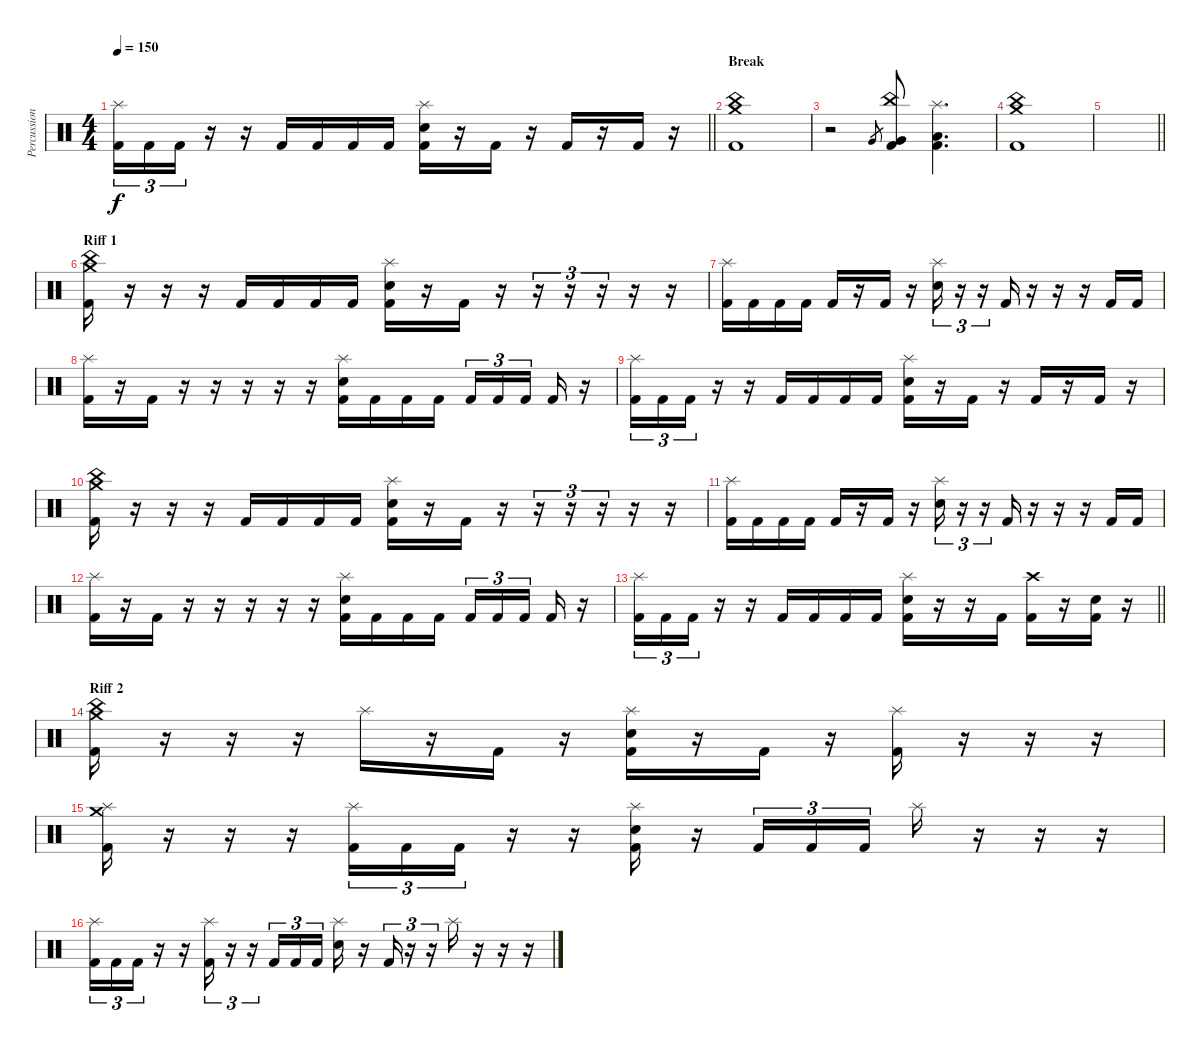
\track ("Percussion" "Percussion") {instrument percussion}
\staff {score}
\articulation defaults
\ts (4 4)
\tempo 150
\clef neutral
\barLineRight lightlight
\ks c
("Splash (hit)" "Kick (hit) 2").16{tu (3 2) dy f} "Kick (hit) 2".16{tu (3 2)} "Kick (hit) 2".16{tu (3 2)} r.16 r.16 "Kick (hit) 2".16 "Kick (hit) 2".16 "Kick (hit) 2".16 "Kick (hit) 2".16 ("Splash (hit)" "Electric Snare (hit)" "Kick (hit) 2").16 r.16 "Kick (hit) 2".16 r.16 "Kick (hit) 2".16 r.16 "Kick (hit) 2".16 r.16 |
\section ("" "Break")
("China (hit)" "Crash medium (hit)" "Kick (hit) 2").1 |
r.2 "Very Low Tom (hit)".8{gr} ("China (hit)" "Very Low Tom (hit)" "Kick (hit) 2").8 ("Splash (hit)" "Low Floor Tom (hit)" "Kick (hit) 2").4{d} |
("China (hit)" "Crash medium (hit)" "Kick (hit) 2").1 |
\barLineRight lightlight
|
\section ("" "Riff 1")
("China (hit)" "Crash medium (hit)" "Kick (hit) 2").16 r.16 r.16 r.16 "Kick (hit) 2".16 "Kick (hit) 2".16 "Kick (hit) 2".16 "Kick (hit) 2".16 ("Splash (hit)" "Electric Snare (hit)" "Kick (hit) 2").16 r.16 "Kick (hit) 2".16 r.16 r.16{tu (3 2)} r.16{tu (3 2)} r.16{tu (3 2)} r.16 r.16 |
("Splash (hit)" "Kick (hit) 2").16 "Kick (hit) 2".16 "Kick (hit) 2".16 "Kick (hit) 2".16 "Kick (hit) 2".16 r.16 "Kick (hit) 2".16 r.16 ("Splash (hit)" "Electric Snare (hit)").16{tu (3 2)} r.16{tu (3 2)} r.16{tu (3 2)} "Kick (hit) 2".16 r.16 r.16 r.16 "Kick (hit) 2".16 "Kick (hit) 2".16 |
("Splash (hit)" "Kick (hit) 2").16 r.16 "Kick (hit) 2".16 r.16 r.16 r.16 r.16 r.16 ("Splash (hit)" "Electric Snare (hit)" "Kick (hit) 2").16 "Kick (hit) 2".16 "Kick (hit) 2".16 "Kick (hit) 2".16 "Kick (hit) 2".16{tu (3 2)} "Kick (hit) 2".16{tu (3 2)} "Kick (hit) 2".16{tu (3 2) beam splitsecondary} "Kick (hit) 2".16 r.16 |
("Splash (hit)" "Kick (hit) 2").16{tu (3 2)} "Kick (hit) 2".16{tu (3 2)} "Kick (hit) 2".16{tu (3 2)} r.16 r.16 "Kick (hit) 2".16 "Kick (hit) 2".16 "Kick (hit) 2".16 "Kick (hit) 2".16 ("Splash (hit)" "Electric Snare (hit)" "Kick (hit) 2").16 r.16 "Kick (hit) 2".16 r.16 "Kick (hit) 2".16 r.16 "Kick (hit) 2".16 r.16 |
("China (hit)" "Crash medium (hit)" "Kick (hit) 2").16 r.16 r.16 r.16 "Kick (hit) 2".16 "Kick (hit) 2".16 "Kick (hit) 2".16 "Kick (hit) 2".16 ("Splash (hit)" "Electric Snare (hit)" "Kick (hit) 2").16 r.16 "Kick (hit) 2".16 r.16 r.16{tu (3 2)} r.16{tu (3 2)} r.16{tu (3 2)} r.16 r.16 |
("Splash (hit)" "Kick (hit) 2").16 "Kick (hit) 2".16 "Kick (hit) 2".16 "Kick (hit) 2".16 "Kick (hit) 2".16 r.16 "Kick (hit) 2".16 r.16 ("Splash (hit)" "Electric Snare (hit)").16{tu (3 2)} r.16{tu (3 2)} r.16{tu (3 2)} "Kick (hit) 2".16 r.16 r.16 r.16 "Kick (hit) 2".16 "Kick (hit) 2".16 |
("Splash (hit)" "Kick (hit) 2").16 r.16 "Kick (hit) 2".16 r.16 r.16 r.16 r.16 r.16 ("Splash (hit)" "Electric Snare (hit)" "Kick (hit) 2").16 "Kick (hit) 2".16 "Kick (hit) 2".16 "Kick (hit) 2".16 "Kick (hit) 2".16{tu (3 2)} "Kick (hit) 2".16{tu (3 2)} "Kick (hit) 2".16{tu (3 2) beam splitsecondary} "Kick (hit) 2".16 r.16 |
\barLineRight lightlight
("Splash (hit)" "Kick (hit) 2").16{tu (3 2)} "Kick (hit) 2".16{tu (3 2)} "Kick (hit) 2".16{tu (3 2)} r.16 r.16 "Kick (hit) 2".16 "Kick (hit) 2".16 "Kick (hit) 2".16 "Kick (hit) 2".16 ("Splash (hit)" "Electric Snare (hit)" "Kick (hit) 2").16 r.16 r.16 "Kick (hit) 2".16 ("Crash high (hit)" "Kick (hit) 2").16 r.16 ("Electric Snare (hit)" "Kick (hit) 2").16 r.16 |
\section ("" "Riff 2")
("China (hit)" "Crash medium (hit)" "Kick (hit) 2").16 r.16 r.16 r.16 "Splash (hit)".16 r.16 "Kick (hit) 2".16 r.16 ("Splash (hit)" "Electric Snare (hit)" "Kick (hit) 2").16 r.16 "Kick (hit) 2".16 r.16 ("Splash (hit)" "Kick (hit) 2").16 r.16 r.16 r.16 |
("Splash (hit)" "Crash medium (hit)" "Kick (hit) 2").16 r.16 r.16 r.16 ("Splash (hit)" "Kick (hit) 2").16{tu (3 2)} "Kick (hit) 2".16{tu (3 2)} "Kick (hit) 2".16{tu (3 2)} r.16 r.16 ("Splash (hit)" "Electric Snare (hit)" "Kick (hit) 2").16 r.16 "Kick (hit) 2".16{tu (3 2)} "Kick (hit) 2".16{tu (3 2)} "Kick (hit) 2".16{tu (3 2)} "Splash (hit)".16 r.16 r.16 r.16 |
("Splash (hit)" "Kick (hit) 2").16{tu (3 2)} "Kick (hit) 2".16{tu (3 2)} "Kick (hit) 2".16{tu (3 2)} r.16 r.16 ("Splash (hit)" "Kick (hit) 2").16{tu (3 2)} r.16{tu (3 2)} r.16{tu (3 2)} "Kick (hit) 2".16{tu (3 2)} "Kick (hit) 2".16{tu (3 2)} "Kick (hit) 2".16{tu (3 2)} ("Splash (hit)" "Electric Snare (hit)").16 r.16 "Kick (hit) 2".16{tu (3 2)} r.16{tu (3 2)} r.16{tu (3 2)} "Splash (hit)".16 r.16 r.16 r.16
